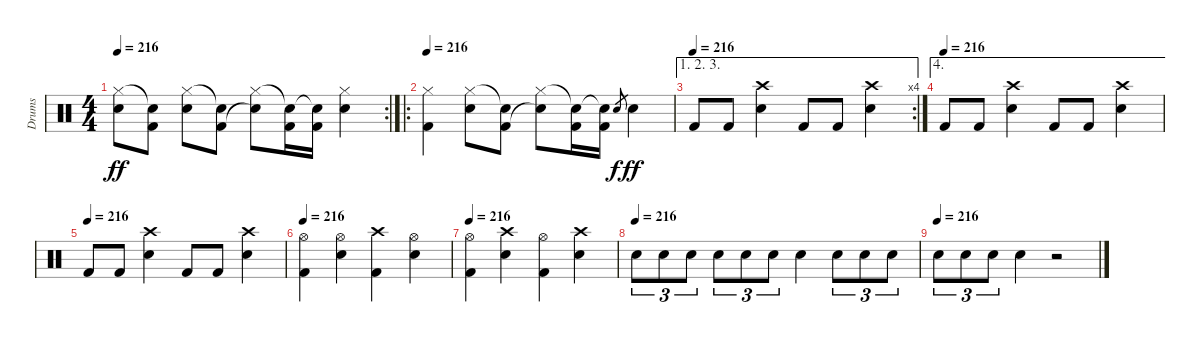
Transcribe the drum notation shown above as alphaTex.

\track ("Drums" "Drums") {instrument percussion}
\staff {score}
\articulation defaults
\rc 2
\ts (4 4)
\tempo 216
\clef neutral
\ks c
("Hi-Hat (closed)" "Snare (hit)"{t}).8{dy ff} ("Snare (hit)"{t} "Kick (hit) 2").8 ("Hi-Hat (closed)" "Snare (hit) 2").8 ("Snare (hit)"{t} "Kick (hit) 2").8 ("Hi-Hat (closed)" "Snare (hit)"{t}).8 ("Snare (hit)"{t} "Kick (hit) 2").16 ("Snare (hit)"{t} "Kick (hit) 2").16 ("Hi-Hat (closed)" "Snare (hit) 2").4 |
\ro
\tempo 216
("Hi-Hat (closed)" "Kick (hit) 2").4 ("Hi-Hat (closed)" "Snare (hit) 2").8 ("Snare (hit)"{t} "Kick (hit) 2").8 ("Hi-Hat (closed)" "Snare (hit)"{t}).8 ("Snare (hit)"{t} "Kick (hit) 2").16 ("Snare (hit)"{t} "Kick (hit) 2").16 "Snare (hit) 2".8{gr dy f} "Snare (hit) 2".4{dy ff} |
\ae (1 2 3)
\rc 4
\tempo (216)
"Kick (hit) 2".8 "Kick (hit) 2".8 ("Crash high (hit)" "Snare (hit) 2").4 "Kick (hit) 2".8 "Kick (hit) 2".8 ("Crash high (hit)" "Snare (hit) 2").4 |
\ae 4
\tempo (216)
"Kick (hit) 2".8 "Kick (hit) 2".8 ("Crash high (hit)" "Snare (hit) 2").4 "Kick (hit) 2".8 "Kick (hit) 2".8 ("Crash high (hit)" "Snare (hit) 2").4 |
\tempo (216)
"Kick (hit) 2".8 "Kick (hit) 2".8 ("Crash high (hit)" "Snare (hit) 2").4 "Kick (hit) 2".8 "Kick (hit) 2".8 ("Crash high (hit)" "Snare (hit) 2").4 |
\tempo 216
("Hi-Hat (open)" "Kick (hit) 2").4 ("Hi-Hat (open)" "Snare (hit) 2").4 ("Crash high (hit)" "Kick (hit) 2").4 ("Hi-Hat (open)" "Snare (hit) 2").4 |
\tempo 216
("Hi-Hat (open)" "Kick (hit) 2").4 ("Crash high (hit)" "Snare (hit) 2").4 ("Hi-Hat (open)" "Kick (hit) 2").4 ("Crash high (hit)" "Snare (hit) 2").4 |
\tempo (216)
"Snare (hit) 2".8{tu (3 2)} "Snare (hit) 2".8{tu (3 2)} "Snare (hit) 2".8{tu (3 2)} "Snare (hit) 2".8{tu (3 2)} "Snare (hit) 2".8{tu (3 2)} "Snare (hit) 2".8{tu (3 2)} "Snare (hit) 2".4 "Snare (hit) 2".8{tu (3 2)} "Snare (hit) 2".8{tu (3 2)} "Snare (hit) 2".8{tu (3 2)} |
\tempo (216)
"Snare (hit) 2".8{tu (3 2)} "Snare (hit) 2".8{tu (3 2)} "Snare (hit) 2".8{tu (3 2)} "Snare (hit) 2".4 r.2
